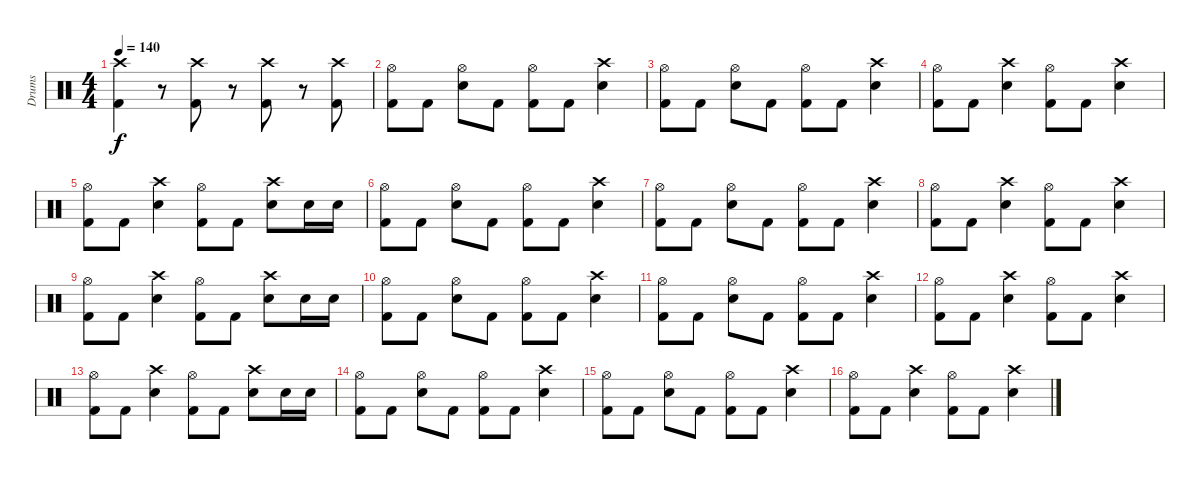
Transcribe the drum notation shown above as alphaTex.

\track ("Drums" "Drums") {instrument percussion}
\staff {score}
\articulation defaults
\ts (4 4)
\tempo 140
\clef neutral
\ks c
("Crash high (hit)" "Kick (hit) 2").4{dy f} r.8 ("Crash high (hit)" "Kick (hit) 2").8 r.8 ("Crash high (hit)" "Kick (hit) 2").8 r.8 ("Crash high (hit)" "Kick (hit) 2").8 |
("Hi-Hat (open)" "Kick (hit) 2").8 "Kick (hit) 2".8 ("Hi-Hat (open)" "Electric Snare (hit)").8 "Kick (hit) 2".8 ("Hi-Hat (open)" "Kick (hit) 2").8 "Kick (hit) 2".8 ("Crash high (hit)" "Electric Snare (hit)").4 |
("Hi-Hat (open)" "Kick (hit) 2").8 "Kick (hit) 2".8 ("Hi-Hat (open)" "Electric Snare (hit)").8 "Kick (hit) 2".8 ("Hi-Hat (open)" "Kick (hit) 2").8 "Kick (hit) 2".8 ("Crash high (hit)" "Electric Snare (hit)").4 |
("Hi-Hat (open)" "Kick (hit) 2").8 "Kick (hit) 2".8 ("Crash high (hit)" "Electric Snare (hit)").4 ("Hi-Hat (open)" "Kick (hit) 2").8 "Kick (hit) 2".8 ("Crash high (hit)" "Electric Snare (hit)").4 |
("Hi-Hat (open)" "Kick (hit) 2").8 "Kick (hit) 2".8 ("Crash high (hit)" "Electric Snare (hit)").4 ("Hi-Hat (open)" "Kick (hit) 2").8 "Kick (hit) 2".8 ("Crash high (hit)" "Electric Snare (hit)").8 "Electric Snare (hit)".16 "Electric Snare (hit)".16 |
("Hi-Hat (open)" "Kick (hit) 2").8 "Kick (hit) 2".8 ("Hi-Hat (open)" "Electric Snare (hit)").8 "Kick (hit) 2".8 ("Hi-Hat (open)" "Kick (hit) 2").8 "Kick (hit) 2".8 ("Crash high (hit)" "Electric Snare (hit)").4 |
("Hi-Hat (open)" "Kick (hit) 2").8 "Kick (hit) 2".8 ("Hi-Hat (open)" "Electric Snare (hit)").8 "Kick (hit) 2".8 ("Hi-Hat (open)" "Kick (hit) 2").8 "Kick (hit) 2".8 ("Crash high (hit)" "Electric Snare (hit)").4 |
("Hi-Hat (open)" "Kick (hit) 2").8 "Kick (hit) 2".8 ("Crash high (hit)" "Electric Snare (hit)").4 ("Hi-Hat (open)" "Kick (hit) 2").8 "Kick (hit) 2".8 ("Crash high (hit)" "Electric Snare (hit)").4 |
("Hi-Hat (open)" "Kick (hit) 2").8 "Kick (hit) 2".8 ("Crash high (hit)" "Electric Snare (hit)").4 ("Hi-Hat (open)" "Kick (hit) 2").8 "Kick (hit) 2".8 ("Crash high (hit)" "Electric Snare (hit)").8 "Electric Snare (hit)".16 "Electric Snare (hit)".16 |
("Hi-Hat (open)" "Kick (hit) 2").8 "Kick (hit) 2".8 ("Hi-Hat (open)" "Electric Snare (hit)").8 "Kick (hit) 2".8 ("Hi-Hat (open)" "Kick (hit) 2").8 "Kick (hit) 2".8 ("Crash high (hit)" "Electric Snare (hit)").4 |
("Hi-Hat (open)" "Kick (hit) 2").8 "Kick (hit) 2".8 ("Hi-Hat (open)" "Electric Snare (hit)").8 "Kick (hit) 2".8 ("Hi-Hat (open)" "Kick (hit) 2").8 "Kick (hit) 2".8 ("Crash high (hit)" "Electric Snare (hit)").4 |
("Hi-Hat (open)" "Kick (hit) 2").8 "Kick (hit) 2".8 ("Crash high (hit)" "Electric Snare (hit)").4 ("Hi-Hat (open)" "Kick (hit) 2").8 "Kick (hit) 2".8 ("Crash high (hit)" "Electric Snare (hit)").4 |
("Hi-Hat (open)" "Kick (hit) 2").8 "Kick (hit) 2".8 ("Crash high (hit)" "Electric Snare (hit)").4 ("Hi-Hat (open)" "Kick (hit) 2").8 "Kick (hit) 2".8 ("Crash high (hit)" "Electric Snare (hit)").8 "Electric Snare (hit)".16 "Electric Snare (hit)".16 |
("Hi-Hat (open)" "Kick (hit) 2").8 "Kick (hit) 2".8 ("Hi-Hat (open)" "Electric Snare (hit)").8 "Kick (hit) 2".8 ("Hi-Hat (open)" "Kick (hit) 2").8 "Kick (hit) 2".8 ("Crash high (hit)" "Electric Snare (hit)").4 |
("Hi-Hat (open)" "Kick (hit) 2").8 "Kick (hit) 2".8 ("Hi-Hat (open)" "Electric Snare (hit)").8 "Kick (hit) 2".8 ("Hi-Hat (open)" "Kick (hit) 2").8 "Kick (hit) 2".8 ("Crash high (hit)" "Electric Snare (hit)").4 |
("Hi-Hat (open)" "Kick (hit) 2").8 "Kick (hit) 2".8 ("Crash high (hit)" "Electric Snare (hit)").4 ("Hi-Hat (open)" "Kick (hit) 2").8 "Kick (hit) 2".8 ("Crash high (hit)" "Electric Snare (hit)").4
